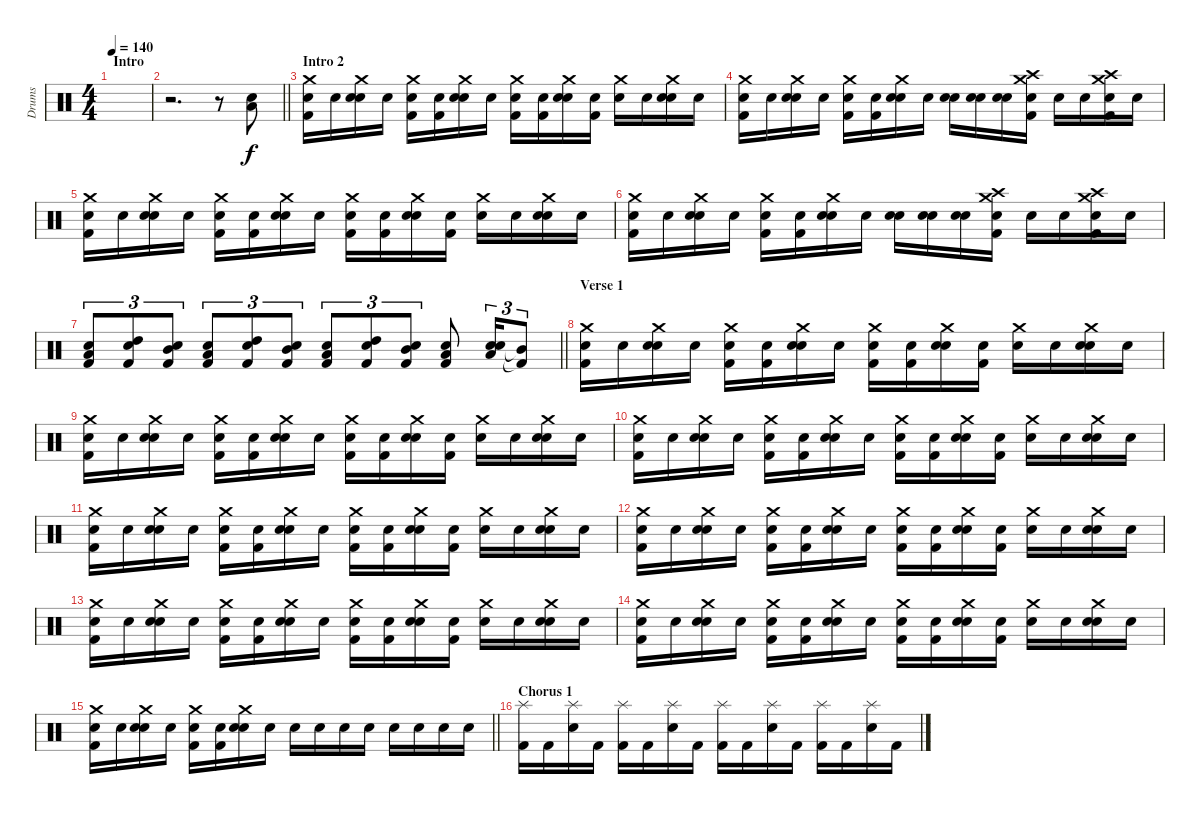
\track ("Drums" "Drums") {instrument percussion}
\staff {score}
\articulation defaults
\ts (4 4)
\section ("" "Intro")
\tempo 140
\clef neutral
\ks c
|
\barLineRight lightlight
r.2{d} r.8 ("Low Tom (hit)" "Electric Snare (hit)").8 |
\section ("" "Intro 2")
("Snare (hit)" "Crash medium (hit)" "Kick (hit) 2").16 "Snare (hit)".16 ("Snare (hit)" "Crash medium (hit)" "Electric Snare (hit)").16 "Snare (hit)".16 ("Snare (hit)" "Crash medium (hit)" "Kick (hit) 2").16 ("Snare (hit)" "Kick (hit) 2").16 ("Snare (hit)" "Crash medium (hit)" "Electric Snare (hit)").16 "Snare (hit)".16 ("Snare (hit)" "Crash medium (hit)" "Kick (hit) 2").16 ("Snare (hit)" "Kick (hit) 2").16 ("Snare (hit)" "Crash medium (hit)" "Electric Snare (hit)").16 ("Snare (hit)" "Kick (hit) 2").16 ("Snare (hit)" "Crash medium (hit)").16 "Snare (hit)".16 ("Snare (hit)" "Crash medium (hit)" "Electric Snare (hit)").16 "Snare (hit)".16 |
("Snare (hit)" "Crash medium (hit)" "Kick (hit) 2").16 "Snare (hit)".16 ("Snare (hit)" "Crash medium (hit)" "Electric Snare (hit)").16 "Snare (hit)".16 ("Snare (hit)" "Crash medium (hit)" "Kick (hit) 2").16 ("Snare (hit)" "Kick (hit) 2").16 ("Snare (hit)" "Crash medium (hit)" "Electric Snare (hit)").16 "Snare (hit)".16 ("Snare (hit)" "Electric Snare (hit)").16 ("Snare (hit)" "Electric Snare (hit)").16 ("Snare (hit)" "Electric Snare (hit)").16 ("Snare (hit)" "Crash medium (hit)" "Crash high (hit)" "Kick (hit) 2").16 "Snare (hit)".16 "Snare (hit)".16 ("Snare (hit)" "Crash medium (hit)" "Crash high (hit)" "Kick (hit) 2").16 "Snare (hit)".16 |
("Snare (hit)" "Crash medium (hit)" "Kick (hit) 2").16 "Snare (hit)".16 ("Snare (hit)" "Crash medium (hit)" "Electric Snare (hit)").16 "Snare (hit)".16 ("Snare (hit)" "Crash medium (hit)" "Kick (hit) 2").16 ("Snare (hit)" "Kick (hit) 2").16 ("Snare (hit)" "Crash medium (hit)" "Electric Snare (hit)").16 "Snare (hit)".16 ("Snare (hit)" "Crash medium (hit)" "Kick (hit) 2").16 ("Snare (hit)" "Kick (hit) 2").16 ("Snare (hit)" "Crash medium (hit)" "Electric Snare (hit)").16 ("Snare (hit)" "Kick (hit) 2").16 ("Snare (hit)" "Crash medium (hit)").16 "Snare (hit)".16 ("Snare (hit)" "Crash medium (hit)" "Electric Snare (hit)").16 "Snare (hit)".16 |
("Snare (hit)" "Crash medium (hit)" "Kick (hit) 2").16 "Snare (hit)".16 ("Snare (hit)" "Crash medium (hit)" "Electric Snare (hit)").16 "Snare (hit)".16 ("Snare (hit)" "Crash medium (hit)" "Kick (hit) 2").16 ("Snare (hit)" "Kick (hit) 2").16 ("Snare (hit)" "Crash medium (hit)" "Electric Snare (hit)").16 "Snare (hit)".16 ("Snare (hit)" "Electric Snare (hit)").16 ("Snare (hit)" "Electric Snare (hit)").16 ("Snare (hit)" "Electric Snare (hit)").16 ("Snare (hit)" "Crash medium (hit)" "Crash high (hit)" "Kick (hit) 2").16 "Snare (hit)".16 "Snare (hit)".16 ("Snare (hit)" "Crash medium (hit)" "Crash high (hit)" "Kick (hit) 2").16 "Snare (hit)".16 |
\barLineRight lightlight
("Snare (hit)" "Low Tom (hit)" "Kick (hit) 2").8{tu (3 2)} ("Snare (hit)" "High Tom (hit)" "Kick (hit) 2").8{tu (3 2)} ("Snare (hit)" "Mid Tom (hit)" "Kick (hit) 2").8{tu (3 2)} ("Snare (hit)" "Low Tom (hit)" "Kick (hit) 2").8{tu (3 2)} ("Snare (hit)" "High Tom (hit)" "Kick (hit) 2").8{tu (3 2)} ("Snare (hit)" "Mid Tom (hit)" "Kick (hit) 2").8{tu (3 2)} ("Snare (hit)" "Low Tom (hit)" "Kick (hit) 2").8{tu (3 2)} ("Snare (hit)" "High Tom (hit)" "Kick (hit) 2").8{tu (3 2)} ("Snare (hit)" "Mid Tom (hit)" "Kick (hit) 2").8{tu (3 2)} ("Snare (hit)" "Low Tom (hit)" "Kick (hit) 2").8 ("Snare (hit)" "Low Tom (hit)" "Electric Snare (hit)").16{tu (3 2)} ("Mid Tom (hit)"{t} "Kick (hit) 2"{t}).8{tu (3 2)} |
\section ("" "Verse 1")
("Snare (hit)" "Crash medium (hit)" "Kick (hit) 2").16 "Snare (hit)".16 ("Snare (hit)" "Crash medium (hit)" "Electric Snare (hit)").16 "Snare (hit)".16 ("Snare (hit)" "Crash medium (hit)" "Kick (hit) 2").16 ("Snare (hit)" "Kick (hit) 2").16 ("Snare (hit)" "Crash medium (hit)" "Electric Snare (hit)").16 "Snare (hit)".16 ("Snare (hit)" "Crash medium (hit)" "Kick (hit) 2").16 ("Snare (hit)" "Kick (hit) 2").16 ("Snare (hit)" "Crash medium (hit)" "Electric Snare (hit)").16 ("Snare (hit)" "Kick (hit) 2").16 ("Snare (hit)" "Crash medium (hit)").16 "Snare (hit)".16 ("Snare (hit)" "Crash medium (hit)" "Electric Snare (hit)").16 "Snare (hit)".16 |
("Snare (hit)" "Crash medium (hit)" "Kick (hit) 2").16 "Snare (hit)".16 ("Snare (hit)" "Crash medium (hit)" "Electric Snare (hit)").16 "Snare (hit)".16 ("Snare (hit)" "Crash medium (hit)" "Kick (hit) 2").16 ("Snare (hit)" "Kick (hit) 2").16 ("Snare (hit)" "Crash medium (hit)" "Electric Snare (hit)").16 "Snare (hit)".16 ("Snare (hit)" "Crash medium (hit)" "Kick (hit) 2").16 ("Snare (hit)" "Kick (hit) 2").16 ("Snare (hit)" "Crash medium (hit)" "Electric Snare (hit)").16 ("Snare (hit)" "Kick (hit) 2").16 ("Snare (hit)" "Crash medium (hit)").16 "Snare (hit)".16 ("Snare (hit)" "Crash medium (hit)" "Electric Snare (hit)").16 "Snare (hit)".16 |
("Snare (hit)" "Crash medium (hit)" "Kick (hit) 2").16 "Snare (hit)".16 ("Snare (hit)" "Crash medium (hit)" "Electric Snare (hit)").16 "Snare (hit)".16 ("Snare (hit)" "Crash medium (hit)" "Kick (hit) 2").16 ("Snare (hit)" "Kick (hit) 2").16 ("Snare (hit)" "Crash medium (hit)" "Electric Snare (hit)").16 "Snare (hit)".16 ("Snare (hit)" "Crash medium (hit)" "Kick (hit) 2").16 ("Snare (hit)" "Kick (hit) 2").16 ("Snare (hit)" "Crash medium (hit)" "Electric Snare (hit)").16 ("Snare (hit)" "Kick (hit) 2").16 ("Snare (hit)" "Crash medium (hit)").16 "Snare (hit)".16 ("Snare (hit)" "Crash medium (hit)" "Electric Snare (hit)").16 "Snare (hit)".16 |
("Snare (hit)" "Crash medium (hit)" "Kick (hit) 2").16 "Snare (hit)".16 ("Snare (hit)" "Crash medium (hit)" "Electric Snare (hit)").16 "Snare (hit)".16 ("Snare (hit)" "Crash medium (hit)" "Kick (hit) 2").16 ("Snare (hit)" "Kick (hit) 2").16 ("Snare (hit)" "Crash medium (hit)" "Electric Snare (hit)").16 "Snare (hit)".16 ("Snare (hit)" "Crash medium (hit)" "Kick (hit) 2").16 ("Snare (hit)" "Kick (hit) 2").16 ("Snare (hit)" "Crash medium (hit)" "Electric Snare (hit)").16 ("Snare (hit)" "Kick (hit) 2").16 ("Snare (hit)" "Crash medium (hit)").16 "Snare (hit)".16 ("Snare (hit)" "Crash medium (hit)" "Electric Snare (hit)").16 "Snare (hit)".16 |
("Snare (hit)" "Crash medium (hit)" "Kick (hit) 2").16 "Snare (hit)".16 ("Snare (hit)" "Crash medium (hit)" "Electric Snare (hit)").16 "Snare (hit)".16 ("Snare (hit)" "Crash medium (hit)" "Kick (hit) 2").16 ("Snare (hit)" "Kick (hit) 2").16 ("Snare (hit)" "Crash medium (hit)" "Electric Snare (hit)").16 "Snare (hit)".16 ("Snare (hit)" "Crash medium (hit)" "Kick (hit) 2").16 ("Snare (hit)" "Kick (hit) 2").16 ("Snare (hit)" "Crash medium (hit)" "Electric Snare (hit)").16 ("Snare (hit)" "Kick (hit) 2").16 ("Snare (hit)" "Crash medium (hit)").16 "Snare (hit)".16 ("Snare (hit)" "Crash medium (hit)" "Electric Snare (hit)").16 "Snare (hit)".16 |
("Snare (hit)" "Crash medium (hit)" "Kick (hit) 2").16 "Snare (hit)".16 ("Snare (hit)" "Crash medium (hit)" "Electric Snare (hit)").16 "Snare (hit)".16 ("Snare (hit)" "Crash medium (hit)" "Kick (hit) 2").16 ("Snare (hit)" "Kick (hit) 2").16 ("Snare (hit)" "Crash medium (hit)" "Electric Snare (hit)").16 "Snare (hit)".16 ("Snare (hit)" "Crash medium (hit)" "Kick (hit) 2").16 ("Snare (hit)" "Kick (hit) 2").16 ("Snare (hit)" "Crash medium (hit)" "Electric Snare (hit)").16 ("Snare (hit)" "Kick (hit) 2").16 ("Snare (hit)" "Crash medium (hit)").16 "Snare (hit)".16 ("Snare (hit)" "Crash medium (hit)" "Electric Snare (hit)").16 "Snare (hit)".16 |
("Snare (hit)" "Crash medium (hit)" "Kick (hit) 2").16 "Snare (hit)".16 ("Snare (hit)" "Crash medium (hit)" "Electric Snare (hit)").16 "Snare (hit)".16 ("Snare (hit)" "Crash medium (hit)" "Kick (hit) 2").16 ("Snare (hit)" "Kick (hit) 2").16 ("Snare (hit)" "Crash medium (hit)" "Electric Snare (hit)").16 "Snare (hit)".16 ("Snare (hit)" "Crash medium (hit)" "Kick (hit) 2").16 ("Snare (hit)" "Kick (hit) 2").16 ("Snare (hit)" "Crash medium (hit)" "Electric Snare (hit)").16 ("Snare (hit)" "Kick (hit) 2").16 ("Snare (hit)" "Crash medium (hit)").16 "Snare (hit)".16 ("Snare (hit)" "Crash medium (hit)" "Electric Snare (hit)").16 "Snare (hit)".16 |
\barLineRight lightlight
("Snare (hit)" "Crash medium (hit)" "Kick (hit) 2").16 "Snare (hit)".16 ("Snare (hit)" "Crash medium (hit)" "Electric Snare (hit)").16 "Snare (hit)".16 ("Snare (hit)" "Crash medium (hit)" "Kick (hit) 2").16 ("Snare (hit)" "Kick (hit) 2").16 ("Snare (hit)" "Crash medium (hit)" "Electric Snare (hit)").16 "Snare (hit)".16 "Electric Snare (hit)".16 "Electric Snare (hit)".16 "Electric Snare (hit)".16 "Electric Snare (hit)".16 "Electric Snare (hit)".16 "Electric Snare (hit)".16 "Electric Snare (hit)".16 "Electric Snare (hit)".16 |
\section ("" "Chorus 1")
("Splash (hit)" "Kick (hit) 2").16 "Kick (hit) 2".16 ("Splash (hit)" "Electric Snare (hit)").16 "Kick (hit) 2".16 ("Splash (hit)" "Kick (hit) 2").16 "Kick (hit) 2".16 ("Splash (hit)" "Electric Snare (hit)").16 "Kick (hit) 2".16 ("Splash (hit)" "Kick (hit) 2").16 "Kick (hit) 2".16 ("Splash (hit)" "Electric Snare (hit)").16 "Kick (hit) 2".16 ("Splash (hit)" "Kick (hit) 2").16 "Kick (hit) 2".16 ("Splash (hit)" "Electric Snare (hit)").16 "Kick (hit) 2".16
